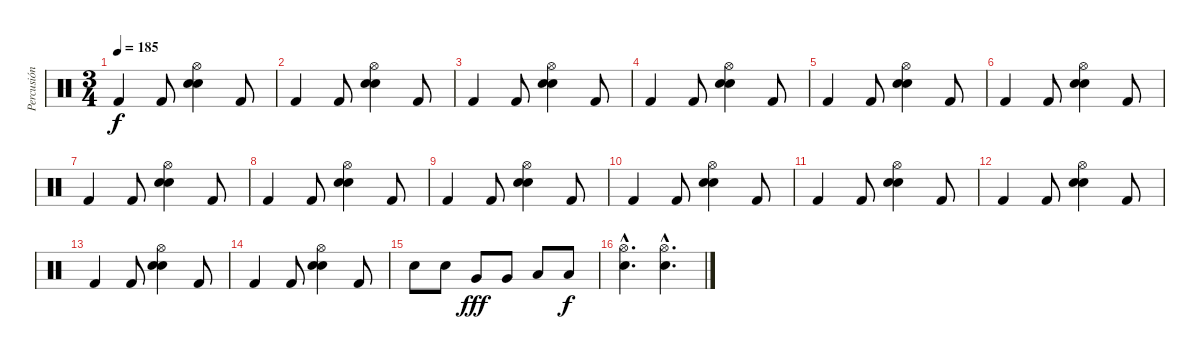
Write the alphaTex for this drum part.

\track ("Percusión" "Percusión") {instrument percussion}
\staff {score}
\articulation defaults
\ts (3 4)
\tempo 185
\clef neutral
\ks c "Kick (hit) 2".4{dy f} "Kick (hit) 2".8
("Hi-Hat (open)" "Electric Snare (hit)" "Snare (hit) 2").4 "Kick (hit) 2".8 |
"Kick (hit) 2".4 "Kick (hit) 2".8 ("Hi-Hat (open)" "Electric Snare (hit)" "Snare (hit) 2").4 "Kick (hit) 2".8 |
"Kick (hit) 2".4 "Kick (hit) 2".8 ("Hi-Hat (open)" "Electric Snare (hit)" "Snare (hit) 2").4 "Kick (hit) 2".8 |
"Kick (hit) 2".4 "Kick (hit) 2".8 ("Hi-Hat (open)" "Electric Snare (hit)" "Snare (hit) 2").4 "Kick (hit) 2".8 |
"Kick (hit) 2".4 "Kick (hit) 2".8 ("Hi-Hat (open)" "Electric Snare (hit)" "Snare (hit) 2").4 "Kick (hit) 2".8 |
"Kick (hit) 2".4 "Kick (hit) 2".8 ("Hi-Hat (open)" "Electric Snare (hit)" "Snare (hit) 2").4 "Kick (hit) 2".8 |
"Kick (hit) 2".4 "Kick (hit) 2".8 ("Hi-Hat (open)" "Electric Snare (hit)" "Snare (hit) 2").4 "Kick (hit) 2".8 |
"Kick (hit) 2".4 "Kick (hit) 2".8 ("Hi-Hat (open)" "Electric Snare (hit)" "Snare (hit) 2").4 "Kick (hit) 2".8 |
"Kick (hit) 2".4 "Kick (hit) 2".8 ("Hi-Hat (open)" "Electric Snare (hit)" "Snare (hit) 2").4 "Kick (hit) 2".8 |
"Kick (hit) 2".4 "Kick (hit) 2".8 ("Hi-Hat (open)" "Electric Snare (hit)" "Snare (hit) 2").4 "Kick (hit) 2".8 |
"Kick (hit) 2".4 "Kick (hit) 2".8 ("Hi-Hat (open)" "Electric Snare (hit)" "Snare (hit) 2").4 "Kick (hit) 2".8 |
"Kick (hit) 2".4 "Kick (hit) 2".8 ("Hi-Hat (open)" "Electric Snare (hit)" "Snare (hit) 2").4 "Kick (hit) 2".8 |
"Kick (hit) 2".4 "Kick (hit) 2".8 ("Hi-Hat (open)" "Electric Snare (hit)" "Snare (hit) 2").4 "Kick (hit) 2".8 |
"Kick (hit) 2".4 "Kick (hit) 2".8 ("Hi-Hat (open)" "Electric Snare (hit)" "Snare (hit) 2").4 "Kick (hit) 2".8 |
"Electric Snare (hit)".8 "Electric Snare (hit)".8 "Very Low Tom (hit)".8{dy fff} "Very Low Tom (hit)".8 "Low Floor Tom (hit)".8 "Low Floor Tom (hit)".8{dy f} |
("Snare (hit) 2"{hac} "Hi-Hat (open)"{hac}).4{d} ("Snare (hit) 2"{hac} "Hi-Hat (open)"{hac}).4{d}
